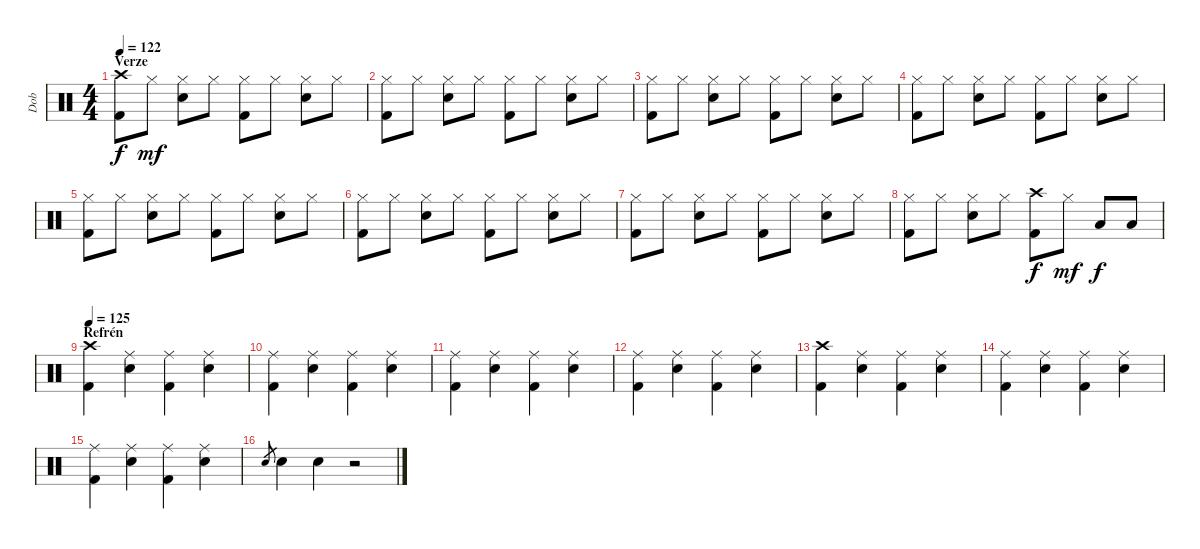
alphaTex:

\track ("Dob" "Dob") {instrument percussion}
\staff {score}
\articulation defaults
\ts (4 4)
\section ("" "Verze")
\tempo 122
\clef neutral
\ks c
("Crash high (hit)" "Kick (hit) 2").8{dy f} "Hi-Hat (closed)".8{dy mf} ("Hi-Hat (closed)" "Electric Snare (hit)").8 "Hi-Hat (closed)".8 ("Hi-Hat (closed)" "Kick (hit) 2").8 "Hi-Hat (closed)".8 ("Hi-Hat (closed)" "Electric Snare (hit)").8 "Hi-Hat (closed)".8 |
("Hi-Hat (closed)" "Kick (hit) 2").8 "Hi-Hat (closed)".8 ("Hi-Hat (closed)" "Electric Snare (hit)").8 "Hi-Hat (closed)".8 ("Hi-Hat (closed)" "Kick (hit) 2").8 "Hi-Hat (closed)".8 ("Hi-Hat (closed)" "Electric Snare (hit)").8 "Hi-Hat (closed)".8 |
("Hi-Hat (closed)" "Kick (hit) 2").8 "Hi-Hat (closed)".8 ("Hi-Hat (closed)" "Electric Snare (hit)").8 "Hi-Hat (closed)".8 ("Hi-Hat (closed)" "Kick (hit) 2").8 "Hi-Hat (closed)".8 ("Hi-Hat (closed)" "Electric Snare (hit)").8 "Hi-Hat (closed)".8 |
("Hi-Hat (closed)" "Kick (hit) 2").8 "Hi-Hat (closed)".8 ("Hi-Hat (closed)" "Electric Snare (hit)").8 "Hi-Hat (closed)".8 ("Hi-Hat (closed)" "Kick (hit) 2").8 "Hi-Hat (closed)".8 ("Hi-Hat (closed)" "Electric Snare (hit)").8 "Hi-Hat (closed)".8 |
("Hi-Hat (closed)" "Kick (hit) 2").8 "Hi-Hat (closed)".8 ("Hi-Hat (closed)" "Electric Snare (hit)").8 "Hi-Hat (closed)".8 ("Hi-Hat (closed)" "Kick (hit) 2").8 "Hi-Hat (closed)".8 ("Hi-Hat (closed)" "Electric Snare (hit)").8 "Hi-Hat (closed)".8 |
("Hi-Hat (closed)" "Kick (hit) 2").8 "Hi-Hat (closed)".8 ("Hi-Hat (closed)" "Electric Snare (hit)").8 "Hi-Hat (closed)".8 ("Hi-Hat (closed)" "Kick (hit) 2").8 "Hi-Hat (closed)".8 ("Hi-Hat (closed)" "Electric Snare (hit)").8 "Hi-Hat (closed)".8 |
("Hi-Hat (closed)" "Kick (hit) 2").8 "Hi-Hat (closed)".8 ("Hi-Hat (closed)" "Electric Snare (hit)").8 "Hi-Hat (closed)".8 ("Hi-Hat (closed)" "Kick (hit) 2").8 "Hi-Hat (closed)".8 ("Hi-Hat (closed)" "Electric Snare (hit)").8 "Hi-Hat (closed)".8 |
("Hi-Hat (closed)" "Kick (hit) 2").8 "Hi-Hat (closed)".8 ("Hi-Hat (closed)" "Electric Snare (hit)").8 "Hi-Hat (closed)".8 ("Crash high (hit)" "Kick (hit) 2").8{dy f} "Hi-Hat (closed)".8{dy mf} "Low Tom (hit)".8{dy f} "Low Tom (hit)".8 |
\section ("" "Refrén")
\tempo 125
("Crash high (hit)" "Kick (hit) 2").4 ("Ride (middle)" "Electric Snare (hit)").4 ("Ride (middle)" "Kick (hit) 2").4 ("Ride (middle)" "Electric Snare (hit)").4 |
("Ride (middle)" "Kick (hit) 2").4 ("Ride (middle)" "Electric Snare (hit)").4 ("Ride (middle)" "Kick (hit) 2").4 ("Ride (middle)" "Electric Snare (hit)").4 |
("Ride (middle)" "Kick (hit) 2").4 ("Ride (middle)" "Electric Snare (hit)").4 ("Ride (middle)" "Kick (hit) 2").4 ("Ride (middle)" "Electric Snare (hit)").4 |
("Ride (middle)" "Kick (hit) 2").4 ("Ride (middle)" "Electric Snare (hit)").4 ("Ride (middle)" "Kick (hit) 2").4 ("Ride (middle)" "Electric Snare (hit)").4 |
("Crash high (hit)" "Kick (hit) 2").4 ("Ride (middle)" "Electric Snare (hit)").4 ("Ride (middle)" "Kick (hit) 2").4 ("Ride (middle)" "Electric Snare (hit)").4 |
("Ride (middle)" "Kick (hit) 2").4 ("Ride (middle)" "Electric Snare (hit)").4 ("Ride (middle)" "Kick (hit) 2").4 ("Ride (middle)" "Electric Snare (hit)").4 |
("Ride (middle)" "Kick (hit) 2").4 ("Ride (middle)" "Electric Snare (hit)").4 ("Ride (middle)" "Kick (hit) 2").4 ("Ride (middle)" "Electric Snare (hit)").4 |
"Electric Snare (hit)".8{gr} "Electric Snare (hit)".4 "Electric Snare (hit)".4 r.2
